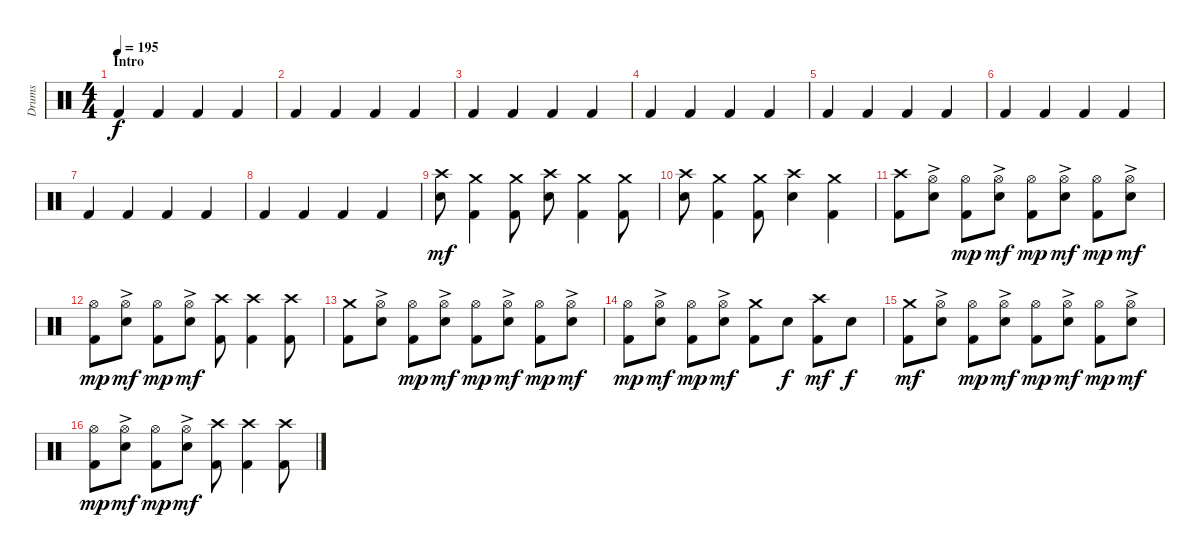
\track ("Drums" "Drums") {instrument percussion}
\staff {score}
\articulation defaults
\ts (4 4)
\section ("" "Intro")
\tempo 195
\clef neutral
\ks c "Kick (hit) 2".4{dy f} "Kick (hit) 2".4 "Kick (hit) 2".4 "Kick (hit) 2".4
|
"Kick (hit) 2".4 "Kick (hit) 2".4 "Kick (hit) 2".4 "Kick (hit) 2".4 |
"Kick (hit) 2".4 "Kick (hit) 2".4 "Kick (hit) 2".4 "Kick (hit) 2".4 |
"Kick (hit) 2".4 "Kick (hit) 2".4 "Kick (hit) 2".4 "Kick (hit) 2".4 |
"Kick (hit) 2".4 "Kick (hit) 2".4 "Kick (hit) 2".4 "Kick (hit) 2".4 |
"Kick (hit) 2".4 "Kick (hit) 2".4 "Kick (hit) 2".4 "Kick (hit) 2".4 |
"Kick (hit) 2".4 "Kick (hit) 2".4 "Kick (hit) 2".4 "Kick (hit) 2".4 |
"Kick (hit) 2".4 "Kick (hit) 2".4 "Kick (hit) 2".4 "Kick (hit) 2".4 |
("Crash high (hit)" "Electric Snare (hit)").8{dy mf} ("Crash medium (hit)" "Kick (hit) 2").4 ("Crash medium (hit)" "Kick (hit) 2").8 ("Crash high (hit)" "Electric Snare (hit)").8 ("Crash medium (hit)" "Kick (hit) 2").4 ("Crash medium (hit)" "Kick (hit) 2").8 |
("Crash high (hit)" "Electric Snare (hit)").8 ("Crash medium (hit)" "Kick (hit) 2").4 ("Crash medium (hit)" "Kick (hit) 2").8 ("Crash high (hit)" "Electric Snare (hit)").4 ("Crash medium (hit)" "Kick (hit) 2").4 |
("Crash high (hit)" "Kick (hit) 2").8 ("Hi-Hat (open)"{ac} "Electric Snare (hit)").8 ("Hi-Hat (open)" "Kick (hit) 2").8{dy mp} ("Hi-Hat (open)"{ac} "Electric Snare (hit)").8{dy mf} ("Hi-Hat (open)" "Kick (hit) 2").8{dy mp} ("Hi-Hat (open)"{ac} "Electric Snare (hit)").8{dy mf} ("Hi-Hat (open)" "Kick (hit) 2").8{dy mp} ("Hi-Hat (open)"{ac} "Electric Snare (hit)").8{dy mf} |
("Hi-Hat (open)" "Kick (hit) 2").8{dy mp} ("Hi-Hat (open)"{ac} "Electric Snare (hit)").8{dy mf} ("Hi-Hat (open)" "Kick (hit) 2").8{dy mp} ("Hi-Hat (open)"{ac} "Electric Snare (hit)").8{dy mf} ("Crash high (hit)" "Kick (hit) 2").8 ("Crash high (hit)" "Kick (hit) 2").4 ("Crash high (hit)" "Kick (hit) 2").8 |
("Crash medium (hit)" "Kick (hit) 2").8 ("Hi-Hat (open)"{ac} "Electric Snare (hit)").8 ("Hi-Hat (open)" "Kick (hit) 2").8{dy mp} ("Hi-Hat (open)"{ac} "Electric Snare (hit)").8{dy mf} ("Hi-Hat (open)" "Kick (hit) 2").8{dy mp} ("Hi-Hat (open)"{ac} "Electric Snare (hit)").8{dy mf} ("Hi-Hat (open)" "Kick (hit) 2").8{dy mp} ("Hi-Hat (open)"{ac} "Electric Snare (hit)").8{dy mf} |
("Hi-Hat (open)" "Kick (hit) 2").8{dy mp} ("Hi-Hat (open)"{ac} "Electric Snare (hit)").8{dy mf} ("Hi-Hat (open)" "Kick (hit) 2").8{dy mp} ("Hi-Hat (open)"{ac} "Electric Snare (hit)").8{dy mf} ("Crash medium (hit)" "Kick (hit) 2").8 "Electric Snare (hit)".8{dy f} ("Crash high (hit)" "Kick (hit) 2").8{dy mf} "Electric Snare (hit)".8{dy f} |
("Crash medium (hit)" "Kick (hit) 2").8{dy mf} ("Hi-Hat (open)"{ac} "Electric Snare (hit)").8 ("Hi-Hat (open)" "Kick (hit) 2").8{dy mp} ("Hi-Hat (open)"{ac} "Electric Snare (hit)").8{dy mf} ("Hi-Hat (open)" "Kick (hit) 2").8{dy mp} ("Hi-Hat (open)"{ac} "Electric Snare (hit)").8{dy mf} ("Hi-Hat (open)" "Kick (hit) 2").8{dy mp} ("Hi-Hat (open)"{ac} "Electric Snare (hit)").8{dy mf} |
("Hi-Hat (open)" "Kick (hit) 2").8{dy mp} ("Hi-Hat (open)"{ac} "Electric Snare (hit)").8{dy mf} ("Hi-Hat (open)" "Kick (hit) 2").8{dy mp} ("Hi-Hat (open)"{ac} "Electric Snare (hit)").8{dy mf} ("Crash high (hit)" "Kick (hit) 2").8 ("Crash high (hit)" "Kick (hit) 2").4 ("Crash high (hit)" "Kick (hit) 2").8
